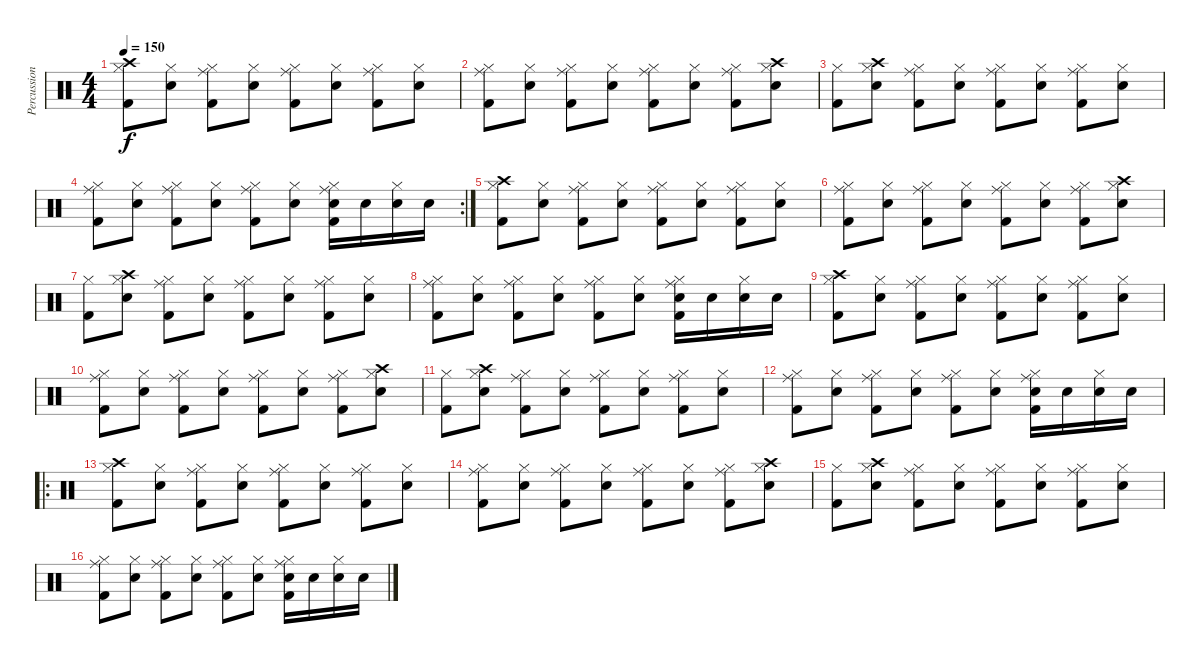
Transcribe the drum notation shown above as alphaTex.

\track ("Percussion" "Percussion") {instrument percussion}
\staff {score}
\articulation defaults
\ts (4 4)
\tempo 150
\clef neutral
\ks c
("Hi-Hat (closed)" "Kick (hit) 2" "Crash high (hit)").8{dy f} ("Hi-Hat (closed)" "Electric Snare (hit)").8 ("Hi-Hat (closed)" "Kick (hit) 2" "Ride (middle)").8 ("Hi-Hat (closed)" "Electric Snare (hit)").8 ("Hi-Hat (closed)" "Kick (hit) 2" "Ride (middle)").8 ("Hi-Hat (closed)" "Electric Snare (hit)").8 ("Hi-Hat (closed)" "Kick (hit) 2" "Ride (middle)").8 ("Hi-Hat (closed)" "Electric Snare (hit)").8 |
("Hi-Hat (closed)" "Kick (hit) 2" "Ride (middle)").8 ("Hi-Hat (closed)" "Electric Snare (hit)").8 ("Hi-Hat (closed)" "Kick (hit) 2" "Ride (middle)").8 ("Hi-Hat (closed)" "Electric Snare (hit)").8 ("Hi-Hat (closed)" "Kick (hit) 2" "Ride (middle)").8 ("Hi-Hat (closed)" "Electric Snare (hit)").8 ("Hi-Hat (closed)" "Kick (hit) 2" "Ride (middle)").8 ("Hi-Hat (closed)" "Electric Snare (hit)" "Crash high (hit)").8 |
("Hi-Hat (closed)" "Kick (hit) 2").8 ("Hi-Hat (closed)" "Electric Snare (hit)" "Crash high (hit)").8 ("Hi-Hat (closed)" "Kick (hit) 2" "Ride (middle)").8 ("Hi-Hat (closed)" "Electric Snare (hit)").8 ("Hi-Hat (closed)" "Kick (hit) 2" "Ride (middle)").8 ("Hi-Hat (closed)" "Electric Snare (hit)").8 ("Hi-Hat (closed)" "Kick (hit) 2" "Ride (middle)").8 ("Hi-Hat (closed)" "Electric Snare (hit)").8 |
\rc 2
("Hi-Hat (closed)" "Kick (hit) 2" "Ride (middle)").8 ("Hi-Hat (closed)" "Electric Snare (hit)").8 ("Hi-Hat (closed)" "Kick (hit) 2" "Ride (middle)").8 ("Hi-Hat (closed)" "Electric Snare (hit)").8 ("Hi-Hat (closed)" "Kick (hit) 2" "Ride (middle)").8 ("Hi-Hat (closed)" "Electric Snare (hit)").8 ("Hi-Hat (closed)" "Electric Snare (hit)" "Kick (hit) 2" "Ride (middle)").16 "Electric Snare (hit)".16 ("Hi-Hat (closed)" "Electric Snare (hit)").16 "Electric Snare (hit)".16 |
("Hi-Hat (closed)" "Kick (hit) 2" "Crash high (hit)").8 ("Hi-Hat (closed)" "Electric Snare (hit)").8 ("Hi-Hat (closed)" "Kick (hit) 2" "Ride (middle)").8 ("Hi-Hat (closed)" "Electric Snare (hit)").8 ("Hi-Hat (closed)" "Kick (hit) 2" "Ride (middle)").8 ("Hi-Hat (closed)" "Electric Snare (hit)").8 ("Hi-Hat (closed)" "Kick (hit) 2" "Ride (middle)").8 ("Hi-Hat (closed)" "Electric Snare (hit)").8 |
("Hi-Hat (closed)" "Kick (hit) 2" "Ride (middle)").8 ("Hi-Hat (closed)" "Electric Snare (hit)").8 ("Hi-Hat (closed)" "Kick (hit) 2" "Ride (middle)").8 ("Hi-Hat (closed)" "Electric Snare (hit)").8 ("Hi-Hat (closed)" "Kick (hit) 2" "Ride (middle)").8 ("Hi-Hat (closed)" "Electric Snare (hit)").8 ("Hi-Hat (closed)" "Kick (hit) 2" "Ride (middle)").8 ("Hi-Hat (closed)" "Electric Snare (hit)" "Crash high (hit)").8 |
("Hi-Hat (closed)" "Kick (hit) 2").8 ("Hi-Hat (closed)" "Electric Snare (hit)" "Crash high (hit)").8 ("Hi-Hat (closed)" "Kick (hit) 2" "Ride (middle)").8 ("Hi-Hat (closed)" "Electric Snare (hit)").8 ("Hi-Hat (closed)" "Kick (hit) 2" "Ride (middle)").8 ("Hi-Hat (closed)" "Electric Snare (hit)").8 ("Hi-Hat (closed)" "Kick (hit) 2" "Ride (middle)").8 ("Hi-Hat (closed)" "Electric Snare (hit)").8 |
("Hi-Hat (closed)" "Kick (hit) 2" "Ride (middle)").8 ("Hi-Hat (closed)" "Electric Snare (hit)").8 ("Hi-Hat (closed)" "Kick (hit) 2" "Ride (middle)").8 ("Hi-Hat (closed)" "Electric Snare (hit)").8 ("Hi-Hat (closed)" "Kick (hit) 2" "Ride (middle)").8 ("Hi-Hat (closed)" "Electric Snare (hit)").8 ("Hi-Hat (closed)" "Electric Snare (hit)" "Kick (hit) 2" "Ride (middle)").16 "Electric Snare (hit)".16 ("Hi-Hat (closed)" "Electric Snare (hit)").16 "Electric Snare (hit)".16 |
("Hi-Hat (closed)" "Kick (hit) 2" "Crash high (hit)").8 ("Hi-Hat (closed)" "Electric Snare (hit)").8 ("Hi-Hat (closed)" "Kick (hit) 2" "Ride (middle)").8 ("Hi-Hat (closed)" "Electric Snare (hit)").8 ("Hi-Hat (closed)" "Kick (hit) 2" "Ride (middle)").8 ("Hi-Hat (closed)" "Electric Snare (hit)").8 ("Hi-Hat (closed)" "Kick (hit) 2" "Ride (middle)").8 ("Hi-Hat (closed)" "Electric Snare (hit)").8 |
("Hi-Hat (closed)" "Kick (hit) 2" "Ride (middle)").8 ("Hi-Hat (closed)" "Electric Snare (hit)").8 ("Hi-Hat (closed)" "Kick (hit) 2" "Ride (middle)").8 ("Hi-Hat (closed)" "Electric Snare (hit)").8 ("Hi-Hat (closed)" "Kick (hit) 2" "Ride (middle)").8 ("Hi-Hat (closed)" "Electric Snare (hit)").8 ("Hi-Hat (closed)" "Kick (hit) 2" "Ride (middle)").8 ("Hi-Hat (closed)" "Electric Snare (hit)" "Crash high (hit)").8 |
("Hi-Hat (closed)" "Kick (hit) 2").8 ("Hi-Hat (closed)" "Electric Snare (hit)" "Crash high (hit)").8 ("Hi-Hat (closed)" "Kick (hit) 2" "Ride (middle)").8 ("Hi-Hat (closed)" "Electric Snare (hit)").8 ("Hi-Hat (closed)" "Kick (hit) 2" "Ride (middle)").8 ("Hi-Hat (closed)" "Electric Snare (hit)").8 ("Hi-Hat (closed)" "Kick (hit) 2" "Ride (middle)").8 ("Hi-Hat (closed)" "Electric Snare (hit)").8 |
("Hi-Hat (closed)" "Kick (hit) 2" "Ride (middle)").8 ("Hi-Hat (closed)" "Electric Snare (hit)").8 ("Hi-Hat (closed)" "Kick (hit) 2" "Ride (middle)").8 ("Hi-Hat (closed)" "Electric Snare (hit)").8 ("Hi-Hat (closed)" "Kick (hit) 2" "Ride (middle)").8 ("Hi-Hat (closed)" "Electric Snare (hit)").8 ("Hi-Hat (closed)" "Electric Snare (hit)" "Kick (hit) 2" "Ride (middle)").16 "Electric Snare (hit)".16 ("Hi-Hat (closed)" "Electric Snare (hit)").16 "Electric Snare (hit)".16 |
\ro
("Hi-Hat (closed)" "Kick (hit) 2" "Crash high (hit)").8 ("Hi-Hat (closed)" "Electric Snare (hit)").8 ("Hi-Hat (closed)" "Kick (hit) 2" "Ride (middle)").8 ("Hi-Hat (closed)" "Electric Snare (hit)").8 ("Hi-Hat (closed)" "Kick (hit) 2" "Ride (middle)").8 ("Hi-Hat (closed)" "Electric Snare (hit)").8 ("Hi-Hat (closed)" "Kick (hit) 2" "Ride (middle)").8 ("Hi-Hat (closed)" "Electric Snare (hit)").8 |
("Hi-Hat (closed)" "Kick (hit) 2" "Ride (middle)").8 ("Hi-Hat (closed)" "Electric Snare (hit)").8 ("Hi-Hat (closed)" "Kick (hit) 2" "Ride (middle)").8 ("Hi-Hat (closed)" "Electric Snare (hit)").8 ("Hi-Hat (closed)" "Kick (hit) 2" "Ride (middle)").8 ("Hi-Hat (closed)" "Electric Snare (hit)").8 ("Hi-Hat (closed)" "Kick (hit) 2" "Ride (middle)").8 ("Hi-Hat (closed)" "Electric Snare (hit)" "Crash high (hit)").8 |
("Hi-Hat (closed)" "Kick (hit) 2").8 ("Hi-Hat (closed)" "Electric Snare (hit)" "Crash high (hit)").8 ("Hi-Hat (closed)" "Kick (hit) 2" "Ride (middle)").8 ("Hi-Hat (closed)" "Electric Snare (hit)").8 ("Hi-Hat (closed)" "Kick (hit) 2" "Ride (middle)").8 ("Hi-Hat (closed)" "Electric Snare (hit)").8 ("Hi-Hat (closed)" "Kick (hit) 2" "Ride (middle)").8 ("Hi-Hat (closed)" "Electric Snare (hit)").8 |
("Hi-Hat (closed)" "Kick (hit) 2" "Ride (middle)").8 ("Hi-Hat (closed)" "Electric Snare (hit)").8 ("Hi-Hat (closed)" "Kick (hit) 2" "Ride (middle)").8 ("Hi-Hat (closed)" "Electric Snare (hit)").8 ("Hi-Hat (closed)" "Kick (hit) 2" "Ride (middle)").8 ("Hi-Hat (closed)" "Electric Snare (hit)").8 ("Hi-Hat (closed)" "Electric Snare (hit)" "Kick (hit) 2" "Ride (middle)").16 "Electric Snare (hit)".16 ("Hi-Hat (closed)" "Electric Snare (hit)").16 "Electric Snare (hit)".16
